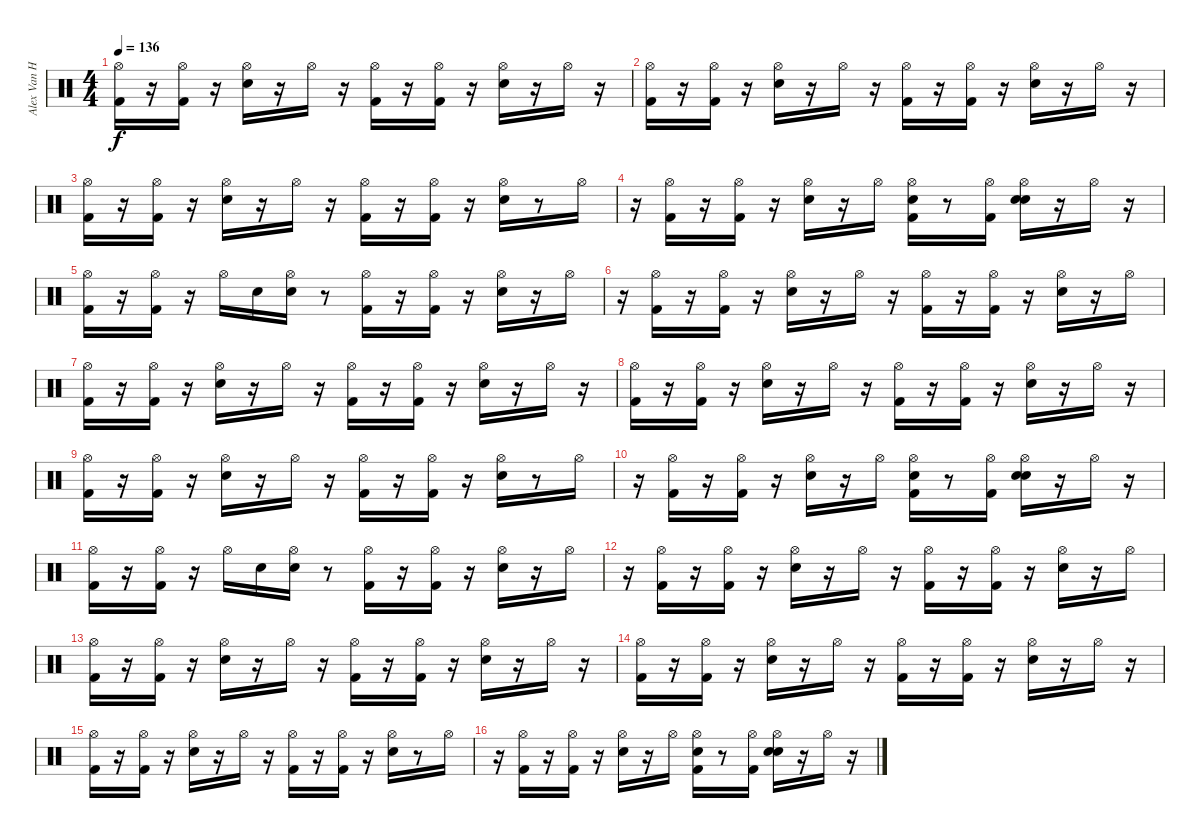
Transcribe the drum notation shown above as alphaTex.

\track ("Alex Van Halen (Drums)" "Alex Van H") {instrument percussion}
\staff {score}
\articulation defaults
\ts (4 4)
\tempo 136
\clef neutral
\ks c
("Hi-Hat (open)" "Kick (hit) 2").16{dy f} r.16 ("Hi-Hat (open)" "Kick (hit) 2").16 r.16 ("Hi-Hat (open)" "Snare (hit) 2").16 r.16 "Hi-Hat (open)".16 r.16 ("Hi-Hat (open)" "Kick (hit) 2").16 r.16 ("Hi-Hat (open)" "Kick (hit) 2").16 r.16 ("Hi-Hat (open)" "Snare (hit) 2").16 r.16 "Hi-Hat (open)".16 r.16 |
("Hi-Hat (open)" "Kick (hit) 2").16 r.16 ("Hi-Hat (open)" "Kick (hit) 2").16 r.16 ("Hi-Hat (open)" "Snare (hit) 2").16 r.16 "Hi-Hat (open)".16 r.16 ("Hi-Hat (open)" "Kick (hit) 2").16 r.16 ("Hi-Hat (open)" "Kick (hit) 2").16 r.16 ("Hi-Hat (open)" "Snare (hit) 2").16 r.16 "Hi-Hat (open)".16 r.16 |
("Hi-Hat (open)" "Kick (hit) 2").16 r.16 ("Hi-Hat (open)" "Kick (hit) 2").16 r.16 ("Hi-Hat (open)" "Snare (hit) 2").16 r.16 "Hi-Hat (open)".16 r.16 ("Hi-Hat (open)" "Kick (hit) 2").16 r.16 ("Hi-Hat (open)" "Kick (hit) 2").16 r.16 ("Hi-Hat (open)" "Snare (hit) 2").16 r.8 "Hi-Hat (open)".16 |
r.16 ("Hi-Hat (open)" "Kick (hit) 2").16 r.16 ("Hi-Hat (open)" "Kick (hit) 2").16 r.16 ("Hi-Hat (open)" "Snare (hit) 2").16 r.16 "Hi-Hat (open)".16 ("Snare (hit)" "Hi-Hat (open)" "Kick (hit) 2").16 r.8 ("Hi-Hat (open)" "Kick (hit) 2").16 ("Snare (hit)" "Hi-Hat (open)" "Snare (hit) 2").16 r.16 "Hi-Hat (open)".16 r.16 |
("Hi-Hat (open)" "Kick (hit) 2").16 r.16 ("Hi-Hat (open)" "Kick (hit) 2").16 r.16 "Hi-Hat (open)".16 "Snare (hit) 2".16 ("Snare (hit)" "Hi-Hat (open)").16 r.8 ("Hi-Hat (open)" "Kick (hit) 2").16 r.16 ("Hi-Hat (open)" "Kick (hit) 2").16 r.16 ("Hi-Hat (open)" "Snare (hit) 2").16 r.16 "Hi-Hat (open)".16 |
r.16 ("Hi-Hat (open)" "Kick (hit) 2").16 r.16 ("Hi-Hat (open)" "Kick (hit) 2").16 r.16 ("Hi-Hat (open)" "Snare (hit) 2").16 r.16 "Hi-Hat (open)".16 r.16 ("Hi-Hat (open)" "Kick (hit) 2").16 r.16 ("Hi-Hat (open)" "Kick (hit) 2").16 r.16 ("Hi-Hat (open)" "Snare (hit) 2").16 r.16 "Hi-Hat (open)".16 |
("Hi-Hat (open)" "Kick (hit) 2").16 r.16 ("Hi-Hat (open)" "Kick (hit) 2").16 r.16 ("Hi-Hat (open)" "Snare (hit) 2").16 r.16 "Hi-Hat (open)".16 r.16 ("Hi-Hat (open)" "Kick (hit) 2").16 r.16 ("Hi-Hat (open)" "Kick (hit) 2").16 r.16 ("Hi-Hat (open)" "Snare (hit) 2").16 r.16 "Hi-Hat (open)".16 r.16 |
("Hi-Hat (open)" "Kick (hit) 2").16 r.16 ("Hi-Hat (open)" "Kick (hit) 2").16 r.16 ("Hi-Hat (open)" "Snare (hit) 2").16 r.16 "Hi-Hat (open)".16 r.16 ("Hi-Hat (open)" "Kick (hit) 2").16 r.16 ("Hi-Hat (open)" "Kick (hit) 2").16 r.16 ("Hi-Hat (open)" "Snare (hit) 2").16 r.16 "Hi-Hat (open)".16 r.16 |
("Hi-Hat (open)" "Kick (hit) 2").16 r.16 ("Hi-Hat (open)" "Kick (hit) 2").16 r.16 ("Hi-Hat (open)" "Snare (hit) 2").16 r.16 "Hi-Hat (open)".16 r.16 ("Hi-Hat (open)" "Kick (hit) 2").16 r.16 ("Hi-Hat (open)" "Kick (hit) 2").16 r.16 ("Hi-Hat (open)" "Snare (hit) 2").16 r.8 "Hi-Hat (open)".16 |
r.16 ("Hi-Hat (open)" "Kick (hit) 2").16 r.16 ("Hi-Hat (open)" "Kick (hit) 2").16 r.16 ("Hi-Hat (open)" "Snare (hit) 2").16 r.16 "Hi-Hat (open)".16 ("Snare (hit)" "Hi-Hat (open)" "Kick (hit) 2").16 r.8 ("Hi-Hat (open)" "Kick (hit) 2").16 ("Snare (hit)" "Hi-Hat (open)" "Snare (hit) 2").16 r.16 "Hi-Hat (open)".16 r.16 |
("Hi-Hat (open)" "Kick (hit) 2").16 r.16 ("Hi-Hat (open)" "Kick (hit) 2").16 r.16 "Hi-Hat (open)".16 "Snare (hit) 2".16 ("Snare (hit)" "Hi-Hat (open)").16 r.8 ("Hi-Hat (open)" "Kick (hit) 2").16 r.16 ("Hi-Hat (open)" "Kick (hit) 2").16 r.16 ("Hi-Hat (open)" "Snare (hit) 2").16 r.16 "Hi-Hat (open)".16 |
r.16 ("Hi-Hat (open)" "Kick (hit) 2").16 r.16 ("Hi-Hat (open)" "Kick (hit) 2").16 r.16 ("Hi-Hat (open)" "Snare (hit) 2").16 r.16 "Hi-Hat (open)".16 r.16 ("Hi-Hat (open)" "Kick (hit) 2").16 r.16 ("Hi-Hat (open)" "Kick (hit) 2").16 r.16 ("Hi-Hat (open)" "Snare (hit) 2").16 r.16 "Hi-Hat (open)".16 |
("Hi-Hat (open)" "Kick (hit) 2").16 r.16 ("Hi-Hat (open)" "Kick (hit) 2").16 r.16 ("Hi-Hat (open)" "Snare (hit) 2").16 r.16 "Hi-Hat (open)".16 r.16 ("Hi-Hat (open)" "Kick (hit) 2").16 r.16 ("Hi-Hat (open)" "Kick (hit) 2").16 r.16 ("Hi-Hat (open)" "Snare (hit) 2").16 r.16 "Hi-Hat (open)".16 r.16 |
("Hi-Hat (open)" "Kick (hit) 2").16 r.16 ("Hi-Hat (open)" "Kick (hit) 2").16 r.16 ("Hi-Hat (open)" "Snare (hit) 2").16 r.16 "Hi-Hat (open)".16 r.16 ("Hi-Hat (open)" "Kick (hit) 2").16 r.16 ("Hi-Hat (open)" "Kick (hit) 2").16 r.16 ("Hi-Hat (open)" "Snare (hit) 2").16 r.16 "Hi-Hat (open)".16 r.16 |
("Hi-Hat (open)" "Kick (hit) 2").16 r.16 ("Hi-Hat (open)" "Kick (hit) 2").16 r.16 ("Hi-Hat (open)" "Snare (hit) 2").16 r.16 "Hi-Hat (open)".16 r.16 ("Hi-Hat (open)" "Kick (hit) 2").16 r.16 ("Hi-Hat (open)" "Kick (hit) 2").16 r.16 ("Hi-Hat (open)" "Snare (hit) 2").16 r.8 "Hi-Hat (open)".16 |
r.16 ("Hi-Hat (open)" "Kick (hit) 2").16 r.16 ("Hi-Hat (open)" "Kick (hit) 2").16 r.16 ("Hi-Hat (open)" "Snare (hit) 2").16 r.16 "Hi-Hat (open)".16 ("Snare (hit)" "Hi-Hat (open)" "Kick (hit) 2").16 r.8 ("Hi-Hat (open)" "Kick (hit) 2").16 ("Snare (hit)" "Hi-Hat (open)" "Snare (hit) 2").16 r.16 "Hi-Hat (open)".16 r.16
